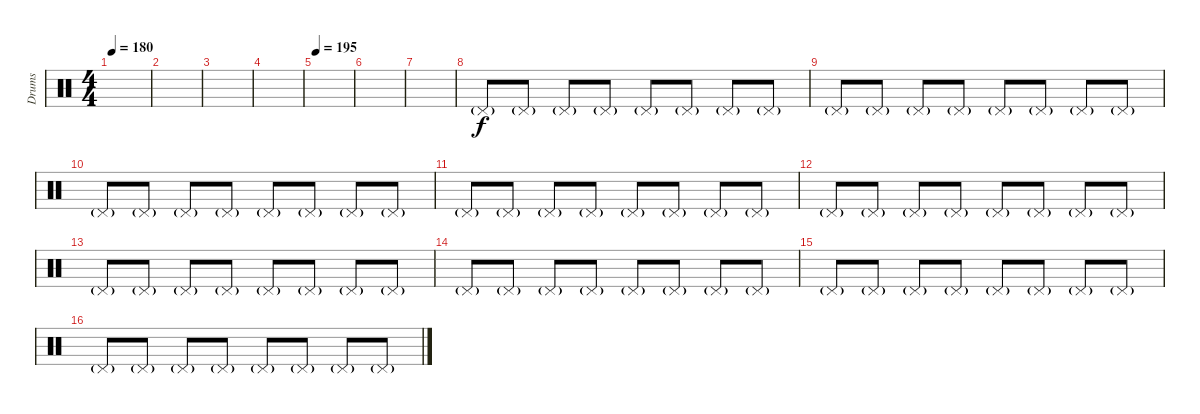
\track ("Drums" "Drums") {instrument percussion}
\staff {score}
\articulation defaults
\ts (4 4)
\tempo 180
\clef neutral
\ks c
|
|
|
|
\tempo 195
|
|
|
"Pedal Hi-Hat (hit)"{g}.8 "Pedal Hi-Hat (hit)"{g}.8 "Pedal Hi-Hat (hit)"{g}.8 "Pedal Hi-Hat (hit)"{g}.8 "Pedal Hi-Hat (hit)"{g}.8 "Pedal Hi-Hat (hit)"{g}.8 "Pedal Hi-Hat (hit)"{g}.8 "Pedal Hi-Hat (hit)"{g}.8 |
"Pedal Hi-Hat (hit)"{g}.8 "Pedal Hi-Hat (hit)"{g}.8 "Pedal Hi-Hat (hit)"{g}.8 "Pedal Hi-Hat (hit)"{g}.8 "Pedal Hi-Hat (hit)"{g}.8 "Pedal Hi-Hat (hit)"{g}.8 "Pedal Hi-Hat (hit)"{g}.8 "Pedal Hi-Hat (hit)"{g}.8 |
"Pedal Hi-Hat (hit)"{g}.8 "Pedal Hi-Hat (hit)"{g}.8 "Pedal Hi-Hat (hit)"{g}.8 "Pedal Hi-Hat (hit)"{g}.8 "Pedal Hi-Hat (hit)"{g}.8 "Pedal Hi-Hat (hit)"{g}.8 "Pedal Hi-Hat (hit)"{g}.8 "Pedal Hi-Hat (hit)"{g}.8 |
"Pedal Hi-Hat (hit)"{g}.8 "Pedal Hi-Hat (hit)"{g}.8 "Pedal Hi-Hat (hit)"{g}.8 "Pedal Hi-Hat (hit)"{g}.8 "Pedal Hi-Hat (hit)"{g}.8 "Pedal Hi-Hat (hit)"{g}.8 "Pedal Hi-Hat (hit)"{g}.8 "Pedal Hi-Hat (hit)"{g}.8 |
"Pedal Hi-Hat (hit)"{g}.8 "Pedal Hi-Hat (hit)"{g}.8 "Pedal Hi-Hat (hit)"{g}.8 "Pedal Hi-Hat (hit)"{g}.8 "Pedal Hi-Hat (hit)"{g}.8 "Pedal Hi-Hat (hit)"{g}.8 "Pedal Hi-Hat (hit)"{g}.8 "Pedal Hi-Hat (hit)"{g}.8 |
"Pedal Hi-Hat (hit)"{g}.8 "Pedal Hi-Hat (hit)"{g}.8 "Pedal Hi-Hat (hit)"{g}.8 "Pedal Hi-Hat (hit)"{g}.8 "Pedal Hi-Hat (hit)"{g}.8 "Pedal Hi-Hat (hit)"{g}.8 "Pedal Hi-Hat (hit)"{g}.8 "Pedal Hi-Hat (hit)"{g}.8 |
"Pedal Hi-Hat (hit)"{g}.8 "Pedal Hi-Hat (hit)"{g}.8 "Pedal Hi-Hat (hit)"{g}.8 "Pedal Hi-Hat (hit)"{g}.8 "Pedal Hi-Hat (hit)"{g}.8 "Pedal Hi-Hat (hit)"{g}.8 "Pedal Hi-Hat (hit)"{g}.8 "Pedal Hi-Hat (hit)"{g}.8 |
"Pedal Hi-Hat (hit)"{g}.8 "Pedal Hi-Hat (hit)"{g}.8 "Pedal Hi-Hat (hit)"{g}.8 "Pedal Hi-Hat (hit)"{g}.8 "Pedal Hi-Hat (hit)"{g}.8 "Pedal Hi-Hat (hit)"{g}.8 "Pedal Hi-Hat (hit)"{g}.8 "Pedal Hi-Hat (hit)"{g}.8 |
"Pedal Hi-Hat (hit)"{g}.8 "Pedal Hi-Hat (hit)"{g}.8 "Pedal Hi-Hat (hit)"{g}.8 "Pedal Hi-Hat (hit)"{g}.8 "Pedal Hi-Hat (hit)"{g}.8 "Pedal Hi-Hat (hit)"{g}.8 "Pedal Hi-Hat (hit)"{g}.8 "Pedal Hi-Hat (hit)"{g}.8
